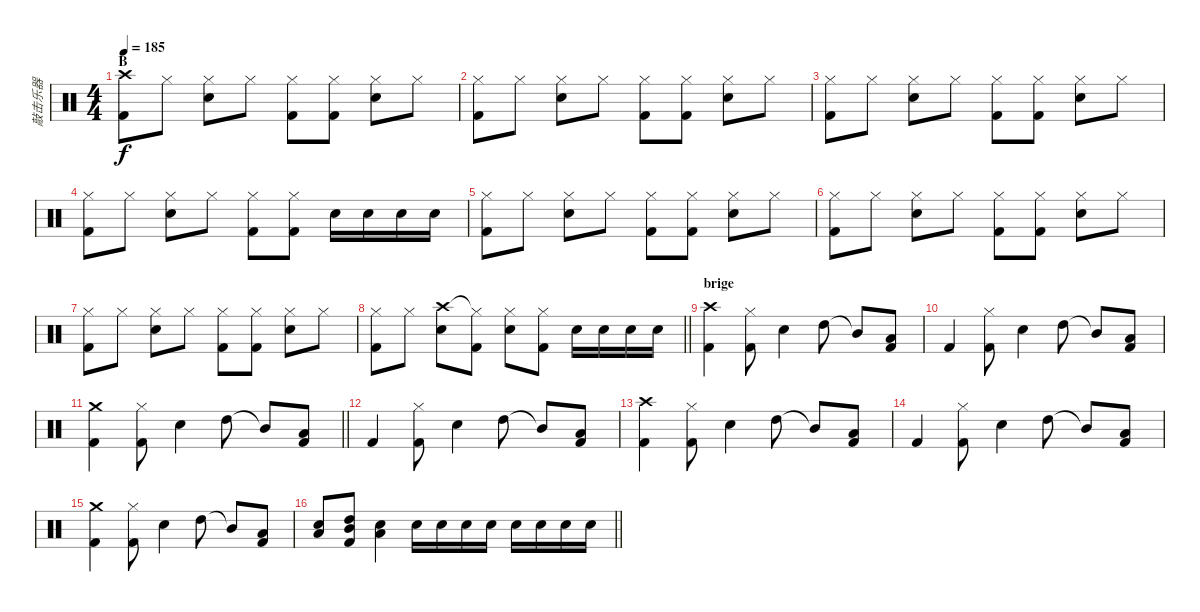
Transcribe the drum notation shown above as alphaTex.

\track ("敲击乐器" "敲击乐器") {instrument percussion}
\staff {score}
\articulation defaults
\ts (4 4)
\section ("" "B")
\tempo 185
\clef neutral
\ks c
("Crash high (hit)" "Kick (hit) 2").8{dy f} "Hi-Hat (closed)".8 ("Hi-Hat (closed)" "Snare (hit) 2").8 "Hi-Hat (closed)".8 ("Hi-Hat (closed)" "Kick (hit) 2").8 ("Hi-Hat (closed)" "Kick (hit) 2").8 ("Hi-Hat (closed)" "Snare (hit) 2").8 "Hi-Hat (closed)".8 |
("Hi-Hat (closed)" "Kick (hit) 2").8 "Hi-Hat (closed)".8 ("Hi-Hat (closed)" "Snare (hit) 2").8 "Hi-Hat (closed)".8 ("Hi-Hat (closed)" "Kick (hit) 2").8 ("Hi-Hat (closed)" "Kick (hit) 2").8 ("Hi-Hat (closed)" "Snare (hit) 2").8 "Hi-Hat (closed)".8 |
("Hi-Hat (closed)" "Kick (hit) 2").8 "Hi-Hat (closed)".8 ("Hi-Hat (closed)" "Snare (hit) 2").8 "Hi-Hat (closed)".8 ("Hi-Hat (closed)" "Kick (hit) 2").8 ("Hi-Hat (closed)" "Kick (hit) 2").8 ("Hi-Hat (closed)" "Snare (hit) 2").8 "Hi-Hat (closed)".8 |
("Hi-Hat (closed)" "Kick (hit) 2").8 "Hi-Hat (closed)".8 ("Hi-Hat (closed)" "Snare (hit) 2").8 "Hi-Hat (closed)".8 ("Hi-Hat (closed)" "Kick (hit) 2").8 ("Hi-Hat (closed)" "Kick (hit) 2").8 "Snare (hit) 2".16 "Snare (hit) 2".16 "Snare (hit) 2".16 "Snare (hit) 2".16 |
("Hi-Hat (closed)" "Kick (hit) 2").8 "Hi-Hat (closed)".8 ("Hi-Hat (closed)" "Snare (hit) 2").8 "Hi-Hat (closed)".8 ("Hi-Hat (closed)" "Kick (hit) 2").8 ("Hi-Hat (closed)" "Kick (hit) 2").8 ("Hi-Hat (closed)" "Snare (hit) 2").8 "Hi-Hat (closed)".8 |
("Hi-Hat (closed)" "Kick (hit) 2").8 "Hi-Hat (closed)".8 ("Hi-Hat (closed)" "Snare (hit) 2").8 "Hi-Hat (closed)".8 ("Hi-Hat (closed)" "Kick (hit) 2").8 ("Hi-Hat (closed)" "Kick (hit) 2").8 ("Hi-Hat (closed)" "Snare (hit) 2").8 "Hi-Hat (closed)".8 |
("Hi-Hat (closed)" "Kick (hit) 2").8 "Hi-Hat (closed)".8 ("Hi-Hat (closed)" "Snare (hit) 2").8 "Hi-Hat (closed)".8 ("Hi-Hat (closed)" "Kick (hit) 2").8 ("Hi-Hat (closed)" "Kick (hit) 2").8 ("Hi-Hat (closed)" "Snare (hit) 2").8 "Hi-Hat (closed)".8 |
\barLineRight lightlight
("Hi-Hat (closed)" "Kick (hit) 2").8 "Hi-Hat (closed)".8 ("Crash high (hit)" "Snare (hit) 2").8 ("Hi-Hat (closed)"{t} "Kick (hit) 2").8 ("Hi-Hat (closed)" "Snare (hit) 2").8 ("Hi-Hat (closed)" "Kick (hit) 2").8 "Snare (hit) 2".16 "Snare (hit) 2".16 "Snare (hit) 2".16 "Snare (hit) 2".16 |
\section ("" "brige")
("Crash high (hit)" "Kick (hit) 2").4 ("Hi-Hat (closed)" "Kick (hit) 2").8 "Snare (hit) 2".4 "High Tom (hit)".8 "Mid Tom (hit)"{t}.8 ("Low Tom (hit)" "Kick (hit) 2").8 |
"Kick (hit) 2".4 ("Hi-Hat (closed)" "Kick (hit) 2").8 "Snare (hit) 2".4 "High Tom (hit)".8 "Mid Tom (hit)"{t}.8 ("Low Tom (hit)" "Kick (hit) 2").8 |
\barLineRight lightlight
("Crash medium (hit)" "Kick (hit) 2").4 ("Hi-Hat (closed)" "Kick (hit) 2").8 "Snare (hit) 2".4 "High Tom (hit)".8 "Mid Tom (hit)"{t}.8 ("Low Tom (hit)" "Kick (hit) 2").8 |
"Kick (hit) 2".4 ("Hi-Hat (closed)" "Kick (hit) 2").8 "Snare (hit) 2".4 "High Tom (hit)".8 "Mid Tom (hit)"{t}.8 ("Low Tom (hit)" "Kick (hit) 2").8 |
("Crash high (hit)" "Kick (hit) 2").4 ("Hi-Hat (closed)" "Kick (hit) 2").8 "Snare (hit) 2".4 "High Tom (hit)".8 "Mid Tom (hit)"{t}.8 ("Low Tom (hit)" "Kick (hit) 2").8 |
"Kick (hit) 2".4 ("Hi-Hat (closed)" "Kick (hit) 2").8 "Snare (hit) 2".4 "High Tom (hit)".8 "Mid Tom (hit)"{t}.8 ("Low Tom (hit)" "Kick (hit) 2").8 |
("Crash medium (hit)" "Kick (hit) 2").4 ("Hi-Hat (closed)" "Kick (hit) 2").8 "Snare (hit) 2".4 "High Tom (hit)".8 "Mid Tom (hit)"{t}.8 ("Low Tom (hit)" "Kick (hit) 2").8 |
\barLineRight lightlight
("Electric Snare (hit)" "Low Tom (hit)").8 ("Mid Tom (hit)" "High Tom (hit)" "Kick (hit) 2").8 ("Electric Snare (hit)" "Low Tom (hit)").4 "Snare (hit) 2".16 "Snare (hit) 2".16 "Snare (hit) 2".16 "Snare (hit) 2".16 "Snare (hit) 2".16 "Snare (hit) 2".16 "Snare (hit) 2".16 "Snare (hit) 2".16
